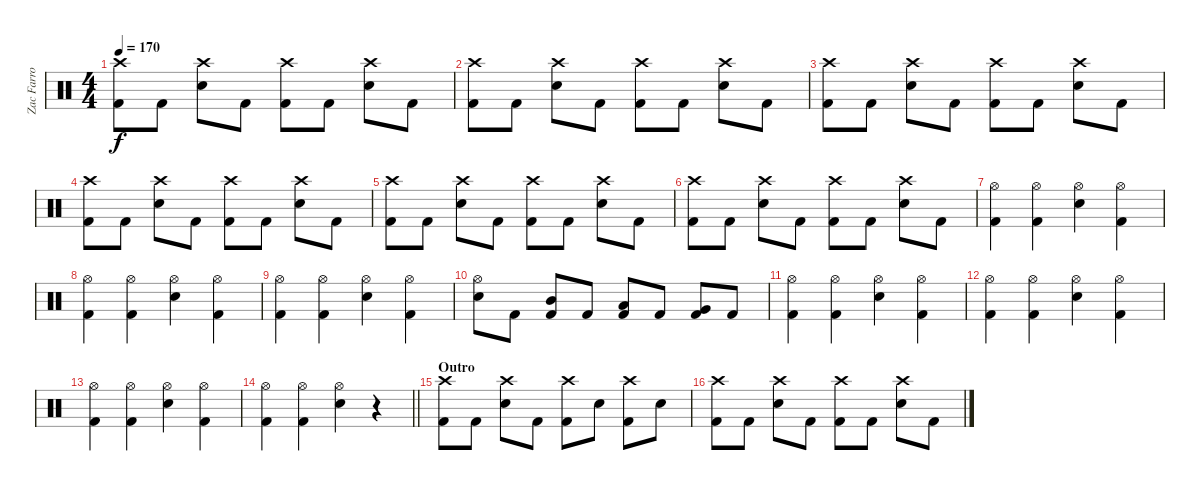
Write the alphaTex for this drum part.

\track ("Zac Farro (Percussion)" "Zac Farro ") {instrument percussion}
\staff {score}
\articulation defaults
\ts (4 4)
\tempo 170
\clef neutral
\ks c
("Crash high (hit)" "Kick (hit) 2").8{dy f} "Kick (hit) 2".8 ("Crash high (hit)" "Electric Snare (hit)").8 "Kick (hit) 2".8 ("Crash high (hit)" "Kick (hit) 2").8 "Kick (hit) 2".8 ("Crash high (hit)" "Electric Snare (hit)").8 "Kick (hit) 2".8 |
("Crash high (hit)" "Kick (hit) 2").8 "Kick (hit) 2".8 ("Crash high (hit)" "Electric Snare (hit)").8 "Kick (hit) 2".8 ("Crash high (hit)" "Kick (hit) 2").8 "Kick (hit) 2".8 ("Crash high (hit)" "Electric Snare (hit)").8 "Kick (hit) 2".8 |
("Crash high (hit)" "Kick (hit) 2").8 "Kick (hit) 2".8 ("Crash high (hit)" "Electric Snare (hit)").8 "Kick (hit) 2".8 ("Crash high (hit)" "Kick (hit) 2").8 "Kick (hit) 2".8 ("Crash high (hit)" "Electric Snare (hit)").8 "Kick (hit) 2".8 |
("Crash high (hit)" "Kick (hit) 2").8 "Kick (hit) 2".8 ("Crash high (hit)" "Electric Snare (hit)").8 "Kick (hit) 2".8 ("Crash high (hit)" "Kick (hit) 2").8 "Kick (hit) 2".8 ("Crash high (hit)" "Electric Snare (hit)").8 "Kick (hit) 2".8 |
("Crash high (hit)" "Kick (hit) 2").8 "Kick (hit) 2".8 ("Crash high (hit)" "Electric Snare (hit)").8 "Kick (hit) 2".8 ("Crash high (hit)" "Kick (hit) 2").8 "Kick (hit) 2".8 ("Crash high (hit)" "Electric Snare (hit)").8 "Kick (hit) 2".8 |
("Crash high (hit)" "Kick (hit) 2").8 "Kick (hit) 2".8 ("Crash high (hit)" "Electric Snare (hit)").8 "Kick (hit) 2".8 ("Crash high (hit)" "Kick (hit) 2").8 "Kick (hit) 2".8 ("Crash high (hit)" "Electric Snare (hit)").8 "Kick (hit) 2".8 |
("Hi-Hat (open)" "Kick (hit) 2").4 ("Hi-Hat (open)" "Kick (hit) 2").4 ("Hi-Hat (open)" "Electric Snare (hit)").4 ("Hi-Hat (open)" "Kick (hit) 2").4 |
("Hi-Hat (open)" "Kick (hit) 2").4 ("Hi-Hat (open)" "Kick (hit) 2").4 ("Hi-Hat (open)" "Electric Snare (hit)").4 ("Hi-Hat (open)" "Kick (hit) 2").4 |
("Hi-Hat (open)" "Kick (hit) 2").4 ("Hi-Hat (open)" "Kick (hit) 2").4 ("Hi-Hat (open)" "Electric Snare (hit)").4 ("Hi-Hat (open)" "Kick (hit) 2").4 |
("Hi-Hat (open)" "Electric Snare (hit)").8 "Kick (hit) 2".8 ("Mid Tom (hit)" "Kick (hit) 2").8 "Kick (hit) 2".8 ("Low Tom (hit)" "Kick (hit) 2").8 "Kick (hit) 2".8 ("Very Low Tom (hit)" "Kick (hit) 2").8 "Kick (hit) 2".8 |
("Hi-Hat (open)" "Kick (hit) 2").4 ("Hi-Hat (open)" "Kick (hit) 2").4 ("Hi-Hat (open)" "Electric Snare (hit)").4 ("Hi-Hat (open)" "Kick (hit) 2").4 |
("Hi-Hat (open)" "Kick (hit) 2").4 ("Hi-Hat (open)" "Kick (hit) 2").4 ("Hi-Hat (open)" "Electric Snare (hit)").4 ("Hi-Hat (open)" "Kick (hit) 2").4 |
("Hi-Hat (open)" "Kick (hit) 2").4 ("Hi-Hat (open)" "Kick (hit) 2").4 ("Hi-Hat (open)" "Electric Snare (hit)").4 ("Hi-Hat (open)" "Kick (hit) 2").4 |
\barLineRight lightlight
("Hi-Hat (open)" "Kick (hit) 2").4 ("Hi-Hat (open)" "Kick (hit) 2").4 ("Hi-Hat (open)" "Electric Snare (hit)").4 r.4 |
\section ("" "Outro")
("Crash high (hit)" "Kick (hit) 2").8 "Kick (hit) 2".8 ("Crash high (hit)" "Electric Snare (hit)").8 "Kick (hit) 2".8 ("Crash high (hit)" "Kick (hit) 2").8 "Electric Snare (hit)".8 ("Crash high (hit)" "Kick (hit) 2").8 "Electric Snare (hit)".8 |
("Crash high (hit)" "Kick (hit) 2").8 "Kick (hit) 2".8 ("Crash high (hit)" "Electric Snare (hit)").8 "Kick (hit) 2".8 ("Crash high (hit)" "Kick (hit) 2").8 "Kick (hit) 2".8 ("Crash high (hit)" "Electric Snare (hit)").8 "Kick (hit) 2".8
